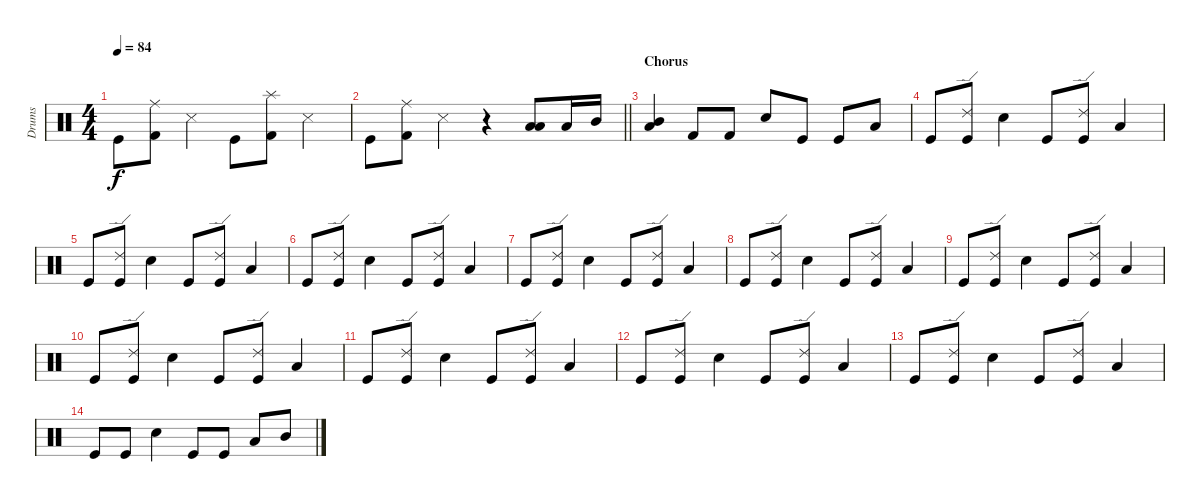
\track ("Drums" "Drums") {instrument percussion}
\staff {score}
\articulation defaults
\ts (4 4)
\tempo 84
\clef neutral
\ks c "Kick (hit)".8{dy f}
("Kick (hit) 2" "Ride (middle)").8 "Snare (side stick) 3".4 "Kick (hit)".8 ("Kick (hit) 2" "Splash (hit)").8 "Snare (side stick) 3".4 |
\barLineRight lightlight "Kick (hit)".8
("Kick (hit) 2" "Ride (middle)").8 "Snare (side stick) 3".4 r.4 ("Low Tom (hit)" "Low Tom (hit)").8 "Low Tom (hit)".16 "Mid Tom (hit)".16 |
\section ("" "Chorus")
("Mid Tom (hit)" "Low Tom (hit)").4 "Kick (hit) 2".8 "Kick (hit) 2".8 "Snare (hit) 2".8 "Kick (hit)".8 "Kick (hit)".8 "Low Tom (hit)".8 |
"Kick (hit)".8 ("Kick (hit)" "Ride (edge) 2").8 "Snare (hit) 2".4 "Kick (hit)".8 ("Kick (hit)" "Ride (edge) 2").8 "Low Tom (hit)".4 |
"Kick (hit)".8 ("Kick (hit)" "Ride (edge) 2").8 "Snare (hit) 2".4 "Kick (hit)".8 ("Kick (hit)" "Ride (edge) 2").8 "Low Tom (hit)".4 |
"Kick (hit)".8 ("Kick (hit)" "Ride (edge) 2").8 "Snare (hit) 2".4 "Kick (hit)".8 ("Kick (hit)" "Ride (edge) 2").8 "Low Tom (hit)".4 |
"Kick (hit)".8 ("Kick (hit)" "Ride (edge) 2").8 "Snare (hit) 2".4 "Kick (hit)".8 ("Kick (hit)" "Ride (edge) 2").8 "Low Tom (hit)".4 |
"Kick (hit)".8 ("Kick (hit)" "Ride (edge) 2").8 "Snare (hit) 2".4 "Kick (hit)".8 ("Kick (hit)" "Ride (edge) 2").8 "Low Tom (hit)".4 |
"Kick (hit)".8 ("Kick (hit)" "Ride (edge) 2").8 "Snare (hit) 2".4 "Kick (hit)".8 ("Kick (hit)" "Ride (edge) 2").8 "Low Tom (hit)".4 |
"Kick (hit)".8 ("Kick (hit)" "Ride (edge) 2").8 "Snare (hit) 2".4 "Kick (hit)".8 ("Kick (hit)" "Ride (edge) 2").8 "Low Tom (hit)".4 |
"Kick (hit)".8 ("Kick (hit)" "Ride (edge) 2").8 "Snare (hit) 2".4 "Kick (hit)".8 ("Kick (hit)" "Ride (edge) 2").8 "Low Tom (hit)".4 |
"Kick (hit)".8 ("Kick (hit)" "Ride (edge) 2").8 "Snare (hit) 2".4 "Kick (hit)".8 ("Kick (hit)" "Ride (edge) 2").8 "Low Tom (hit)".4 |
"Kick (hit)".8 ("Kick (hit)" "Ride (edge) 2").8 "Snare (hit) 2".4 "Kick (hit)".8 ("Kick (hit)" "Ride (edge) 2").8 "Low Tom (hit)".4 |
"Kick (hit)".8 "Kick (hit)".8 "Snare (hit) 2".4 "Kick (hit)".8 "Kick (hit)".8 "Low Tom (hit)".8 "Mid Tom (hit)".8
